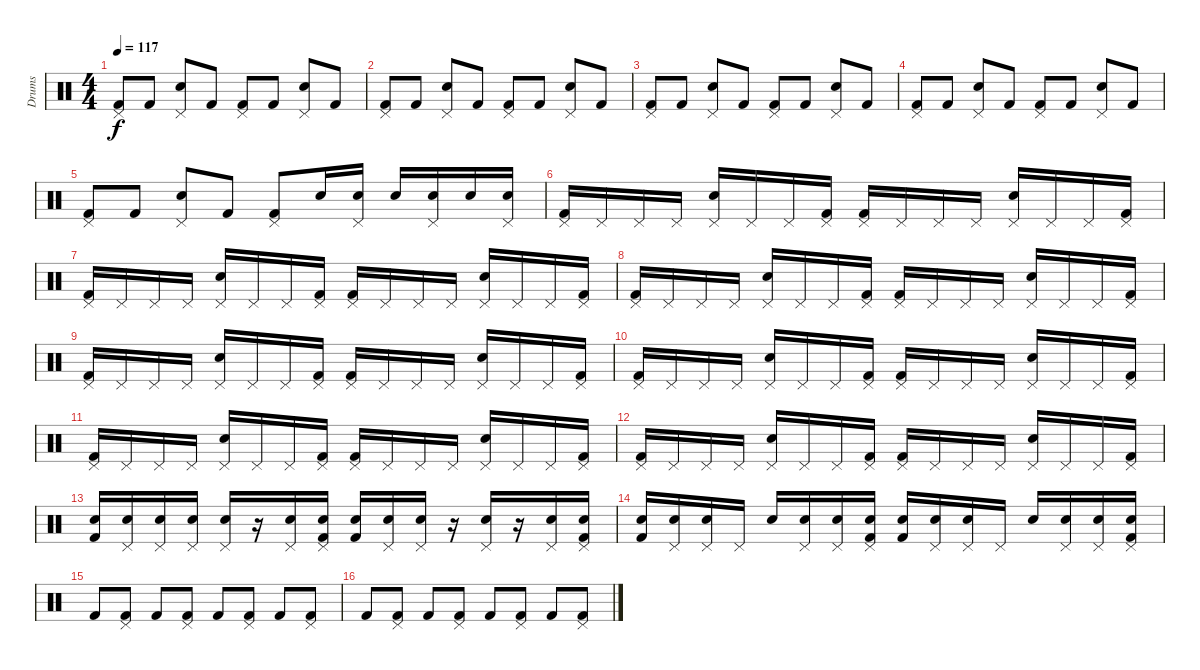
\track ("Drums" "Drums") {instrument percussion}
\staff {score}
\articulation defaults
\ts (4 4)
\tempo 117
\clef neutral
\ks c
("Kick (hit) 2" "Pedal Hi-Hat (hit)").8{dy f} "Kick (hit) 2".8 ("Snare (hit) 2" "Pedal Hi-Hat (hit)").8 "Kick (hit) 2".8 ("Kick (hit) 2" "Pedal Hi-Hat (hit)").8 "Kick (hit) 2".8 ("Snare (hit) 2" "Pedal Hi-Hat (hit)").8 "Kick (hit) 2".8 |
("Kick (hit) 2" "Pedal Hi-Hat (hit)").8 "Kick (hit) 2".8 ("Snare (hit) 2" "Pedal Hi-Hat (hit)").8 "Kick (hit) 2".8 ("Kick (hit) 2" "Pedal Hi-Hat (hit)").8 "Kick (hit) 2".8 ("Snare (hit) 2" "Pedal Hi-Hat (hit)").8 "Kick (hit) 2".8 |
("Kick (hit) 2" "Pedal Hi-Hat (hit)").8 "Kick (hit) 2".8 ("Snare (hit) 2" "Pedal Hi-Hat (hit)").8 "Kick (hit) 2".8 ("Kick (hit) 2" "Pedal Hi-Hat (hit)").8 "Kick (hit) 2".8 ("Snare (hit) 2" "Pedal Hi-Hat (hit)").8 "Kick (hit) 2".8 |
("Kick (hit) 2" "Pedal Hi-Hat (hit)").8 "Kick (hit) 2".8 ("Snare (hit) 2" "Pedal Hi-Hat (hit)").8 "Kick (hit) 2".8 ("Kick (hit) 2" "Pedal Hi-Hat (hit)").8 "Kick (hit) 2".8 ("Snare (hit) 2" "Pedal Hi-Hat (hit)").8 "Kick (hit) 2".8 |
("Kick (hit) 2" "Pedal Hi-Hat (hit)").8 "Kick (hit) 2".8 ("Snare (hit) 2" "Pedal Hi-Hat (hit)").8 "Kick (hit) 2".8 ("Kick (hit) 2" "Pedal Hi-Hat (hit)").8 "Snare (hit) 2".16 ("Snare (hit) 2" "Pedal Hi-Hat (hit)").16 "Snare (hit) 2".16 ("Snare (hit) 2" "Pedal Hi-Hat (hit)").16 "Snare (hit) 2".16 ("Snare (hit) 2" "Pedal Hi-Hat (hit)").16 |
("Kick (hit) 2" "Pedal Hi-Hat (hit)").16 "Pedal Hi-Hat (hit)".16 "Pedal Hi-Hat (hit)".16 "Pedal Hi-Hat (hit)".16 ("Snare (hit) 2" "Pedal Hi-Hat (hit)").16 "Pedal Hi-Hat (hit)".16 "Pedal Hi-Hat (hit)".16 ("Kick (hit) 2" "Pedal Hi-Hat (hit)").16 ("Kick (hit) 2" "Pedal Hi-Hat (hit)").16 "Pedal Hi-Hat (hit)".16 "Pedal Hi-Hat (hit)".16 "Pedal Hi-Hat (hit)".16 ("Snare (hit) 2" "Pedal Hi-Hat (hit)").16 "Pedal Hi-Hat (hit)".16 "Pedal Hi-Hat (hit)".16 ("Kick (hit) 2" "Pedal Hi-Hat (hit)").16 |
("Kick (hit) 2" "Pedal Hi-Hat (hit)").16 "Pedal Hi-Hat (hit)".16 "Pedal Hi-Hat (hit)".16 "Pedal Hi-Hat (hit)".16 ("Snare (hit) 2" "Pedal Hi-Hat (hit)").16 "Pedal Hi-Hat (hit)".16 "Pedal Hi-Hat (hit)".16 ("Kick (hit) 2" "Pedal Hi-Hat (hit)").16 ("Kick (hit) 2" "Pedal Hi-Hat (hit)").16 "Pedal Hi-Hat (hit)".16 "Pedal Hi-Hat (hit)".16 "Pedal Hi-Hat (hit)".16 ("Snare (hit) 2" "Pedal Hi-Hat (hit)").16 "Pedal Hi-Hat (hit)".16 "Pedal Hi-Hat (hit)".16 ("Kick (hit) 2" "Pedal Hi-Hat (hit)").16 |
("Kick (hit) 2" "Pedal Hi-Hat (hit)").16 "Pedal Hi-Hat (hit)".16 "Pedal Hi-Hat (hit)".16 "Pedal Hi-Hat (hit)".16 ("Snare (hit) 2" "Pedal Hi-Hat (hit)").16 "Pedal Hi-Hat (hit)".16 "Pedal Hi-Hat (hit)".16 ("Kick (hit) 2" "Pedal Hi-Hat (hit)").16 ("Kick (hit) 2" "Pedal Hi-Hat (hit)").16 "Pedal Hi-Hat (hit)".16 "Pedal Hi-Hat (hit)".16 "Pedal Hi-Hat (hit)".16 ("Snare (hit) 2" "Pedal Hi-Hat (hit)").16 "Pedal Hi-Hat (hit)".16 "Pedal Hi-Hat (hit)".16 ("Kick (hit) 2" "Pedal Hi-Hat (hit)").16 |
("Kick (hit) 2" "Pedal Hi-Hat (hit)").16 "Pedal Hi-Hat (hit)".16 "Pedal Hi-Hat (hit)".16 "Pedal Hi-Hat (hit)".16 ("Snare (hit) 2" "Pedal Hi-Hat (hit)").16 "Pedal Hi-Hat (hit)".16 "Pedal Hi-Hat (hit)".16 ("Kick (hit) 2" "Pedal Hi-Hat (hit)").16 ("Kick (hit) 2" "Pedal Hi-Hat (hit)").16 "Pedal Hi-Hat (hit)".16 "Pedal Hi-Hat (hit)".16 "Pedal Hi-Hat (hit)".16 ("Snare (hit) 2" "Pedal Hi-Hat (hit)").16 "Pedal Hi-Hat (hit)".16 "Pedal Hi-Hat (hit)".16 ("Kick (hit) 2" "Pedal Hi-Hat (hit)").16 |
("Kick (hit) 2" "Pedal Hi-Hat (hit)").16 "Pedal Hi-Hat (hit)".16 "Pedal Hi-Hat (hit)".16 "Pedal Hi-Hat (hit)".16 ("Snare (hit) 2" "Pedal Hi-Hat (hit)").16 "Pedal Hi-Hat (hit)".16 "Pedal Hi-Hat (hit)".16 ("Kick (hit) 2" "Pedal Hi-Hat (hit)").16 ("Kick (hit) 2" "Pedal Hi-Hat (hit)").16 "Pedal Hi-Hat (hit)".16 "Pedal Hi-Hat (hit)".16 "Pedal Hi-Hat (hit)".16 ("Snare (hit) 2" "Pedal Hi-Hat (hit)").16 "Pedal Hi-Hat (hit)".16 "Pedal Hi-Hat (hit)".16 ("Kick (hit) 2" "Pedal Hi-Hat (hit)").16 |
("Kick (hit) 2" "Pedal Hi-Hat (hit)").16 "Pedal Hi-Hat (hit)".16 "Pedal Hi-Hat (hit)".16 "Pedal Hi-Hat (hit)".16 ("Snare (hit) 2" "Pedal Hi-Hat (hit)").16 "Pedal Hi-Hat (hit)".16 "Pedal Hi-Hat (hit)".16 ("Kick (hit) 2" "Pedal Hi-Hat (hit)").16 ("Kick (hit) 2" "Pedal Hi-Hat (hit)").16 "Pedal Hi-Hat (hit)".16 "Pedal Hi-Hat (hit)".16 "Pedal Hi-Hat (hit)".16 ("Snare (hit) 2" "Pedal Hi-Hat (hit)").16 "Pedal Hi-Hat (hit)".16 "Pedal Hi-Hat (hit)".16 ("Kick (hit) 2" "Pedal Hi-Hat (hit)").16 |
("Kick (hit) 2" "Pedal Hi-Hat (hit)").16 "Pedal Hi-Hat (hit)".16 "Pedal Hi-Hat (hit)".16 "Pedal Hi-Hat (hit)".16 ("Snare (hit) 2" "Pedal Hi-Hat (hit)").16 "Pedal Hi-Hat (hit)".16 "Pedal Hi-Hat (hit)".16 ("Kick (hit) 2" "Pedal Hi-Hat (hit)").16 ("Kick (hit) 2" "Pedal Hi-Hat (hit)").16 "Pedal Hi-Hat (hit)".16 "Pedal Hi-Hat (hit)".16 "Pedal Hi-Hat (hit)".16 ("Snare (hit) 2" "Pedal Hi-Hat (hit)").16 "Pedal Hi-Hat (hit)".16 "Pedal Hi-Hat (hit)".16 ("Kick (hit) 2" "Pedal Hi-Hat (hit)").16 |
("Kick (hit) 2" "Snare (hit) 2").16 ("Snare (hit) 2" "Pedal Hi-Hat (hit)").16 ("Snare (hit) 2" "Pedal Hi-Hat (hit)").16 ("Snare (hit) 2" "Pedal Hi-Hat (hit)").16 ("Snare (hit) 2" "Pedal Hi-Hat (hit)").16 r.16 ("Snare (hit) 2" "Pedal Hi-Hat (hit)").16 ("Kick (hit) 2" "Snare (hit) 2" "Pedal Hi-Hat (hit)").16 ("Kick (hit) 2" "Snare (hit) 2").16 ("Snare (hit) 2" "Pedal Hi-Hat (hit)").16 ("Snare (hit) 2" "Pedal Hi-Hat (hit)").16 r.16 ("Snare (hit) 2" "Pedal Hi-Hat (hit)").16 r.16 ("Snare (hit) 2" "Pedal Hi-Hat (hit)").16 ("Kick (hit) 2" "Snare (hit) 2" "Pedal Hi-Hat (hit)").16 |
("Kick (hit) 2" "Snare (hit) 2").16 ("Snare (hit) 2" "Pedal Hi-Hat (hit)").16 ("Snare (hit) 2" "Pedal Hi-Hat (hit)").16 "Pedal Hi-Hat (hit)".16 "Snare (hit) 2".16 ("Snare (hit) 2" "Pedal Hi-Hat (hit)").16 ("Snare (hit) 2" "Pedal Hi-Hat (hit)").16 ("Kick (hit) 2" "Snare (hit) 2" "Pedal Hi-Hat (hit)").16 ("Kick (hit) 2" "Snare (hit) 2").16 ("Snare (hit) 2" "Pedal Hi-Hat (hit)").16 ("Snare (hit) 2" "Pedal Hi-Hat (hit)").16 "Pedal Hi-Hat (hit)".16 "Snare (hit) 2".16 ("Snare (hit) 2" "Pedal Hi-Hat (hit)").16 ("Snare (hit) 2" "Pedal Hi-Hat (hit)").16 ("Kick (hit) 2" "Snare (hit) 2" "Pedal Hi-Hat (hit)").16 |
"Kick (hit) 2".8 ("Kick (hit) 2" "Pedal Hi-Hat (hit)").8 "Kick (hit) 2".8 ("Kick (hit) 2" "Pedal Hi-Hat (hit)").8 "Kick (hit) 2".8 ("Kick (hit) 2" "Pedal Hi-Hat (hit)").8 "Kick (hit) 2".8 ("Kick (hit) 2" "Pedal Hi-Hat (hit)").8 |
"Kick (hit) 2".8 ("Kick (hit) 2" "Pedal Hi-Hat (hit)").8 "Kick (hit) 2".8 ("Kick (hit) 2" "Pedal Hi-Hat (hit)").8 "Kick (hit) 2".8 ("Kick (hit) 2" "Pedal Hi-Hat (hit)").8 "Kick (hit) 2".8 ("Kick (hit) 2" "Pedal Hi-Hat (hit)").8
